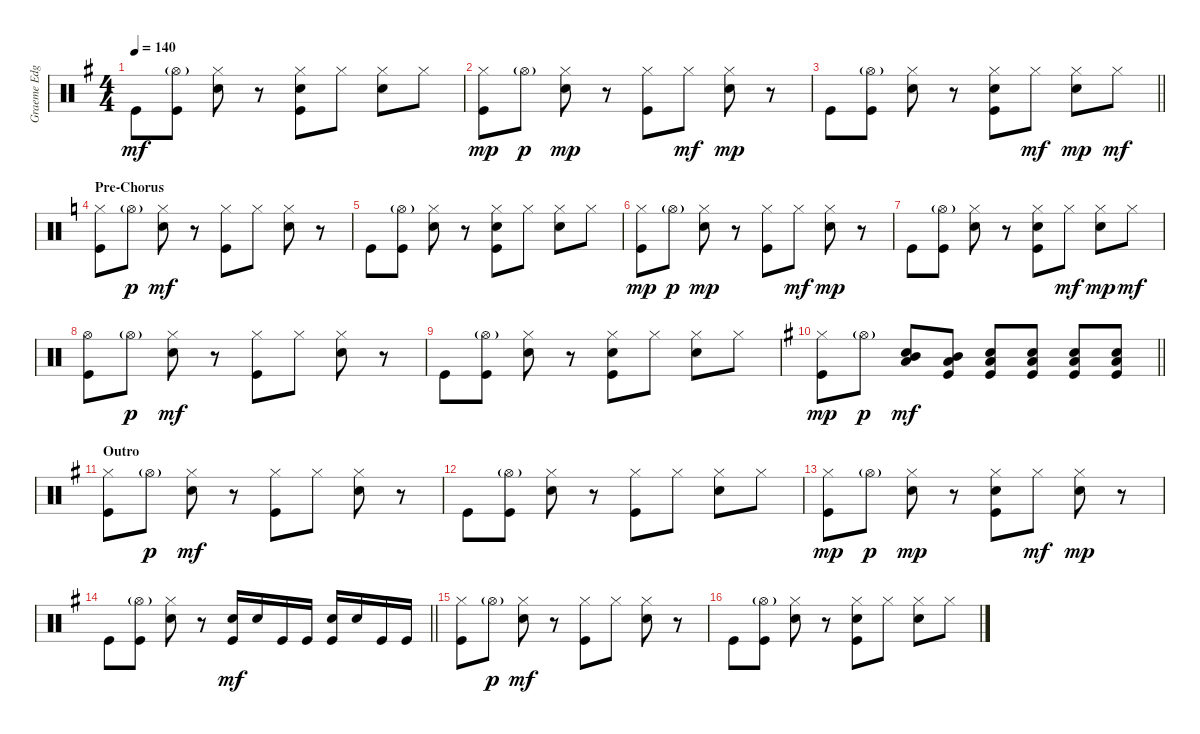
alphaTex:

\track ("Graeme Edge" "Graeme Edg") {instrument percussion}
\staff {score}
\articulation defaults
\ts (4 4)
\tempo 140
\clef neutral
\ks g "Kick (hit)".8{dy mf}
("Hi-Hat (open)"{g} "Kick (hit)").8 ("Hi-Hat (closed)" "Snare (hit) 2").8 r.8 ("Hi-Hat (closed)" "Hand Clap (hit)" "Kick (hit)").8 "Hi-Hat (closed)".8 ("Hi-Hat (closed)" "Snare (hit) 2").8 "Hi-Hat (closed)".8 |
("Hi-Hat (closed)" "Kick (hit)").8{dy mp} "Hi-Hat (open)"{g}.8{dy p} ("Hi-Hat (closed)" "Snare (hit) 2").8{dy mp} r.8 ("Hi-Hat (closed)" "Kick (hit)").8 "Hi-Hat (closed)".8{dy mf} ("Hi-Hat (closed)" "Snare (hit) 2").8{dy mp} r.8 |
\barLineRight lightlight "Kick (hit)".8
("Hi-Hat (open)"{g} "Kick (hit)").8 ("Hi-Hat (closed)" "Snare (hit) 2").8 r.8 ("Hi-Hat (closed)" "Hand Clap (hit)" "Kick (hit)").8 "Hi-Hat (closed)".8{dy mf} ("Hi-Hat (closed)" "Snare (hit) 2").8{dy mp} "Hi-Hat (closed)".8{dy mf} |
\section ("" "Pre-Chorus")
\ks c
("Hi-Hat (closed)" "Kick (hit)").8 "Hi-Hat (open)"{g}.8{dy p} ("Hi-Hat (closed)" "Snare (hit) 2").8{dy mf} r.8 ("Hi-Hat (closed)" "Kick (hit)").8 "Hi-Hat (closed)".8 ("Hi-Hat (closed)" "Snare (hit) 2").8 r.8 |
"Kick (hit)".8 ("Hi-Hat (open)"{g} "Kick (hit)").8 ("Hi-Hat (closed)" "Snare (hit) 2").8 r.8 ("Hi-Hat (closed)" "Hand Clap (hit)" "Kick (hit)").8 "Hi-Hat (closed)".8 ("Hi-Hat (closed)" "Snare (hit) 2").8 "Hi-Hat (closed)".8 |
("Hi-Hat (closed)" "Kick (hit)").8{dy mp} "Hi-Hat (open)"{g}.8{dy p} ("Hi-Hat (closed)" "Snare (hit) 2").8{dy mp} r.8 ("Hi-Hat (closed)" "Kick (hit)").8 "Hi-Hat (closed)".8{dy mf} ("Hi-Hat (closed)" "Snare (hit) 2").8{dy mp} r.8 |
"Kick (hit)".8 ("Hi-Hat (open)"{g} "Kick (hit)").8 ("Hi-Hat (closed)" "Snare (hit) 2").8 r.8 ("Hi-Hat (closed)" "Hand Clap (hit)" "Kick (hit)").8 "Hi-Hat (closed)".8{dy mf} ("Hi-Hat (closed)" "Snare (hit) 2").8{dy mp} "Hi-Hat (closed)".8{dy mf} |
("Hi-Hat (open)" "Kick (hit)").8 "Hi-Hat (open)"{g}.8{dy p} ("Hi-Hat (closed)" "Snare (hit) 2").8{dy mf} r.8 ("Hi-Hat (closed)" "Kick (hit)").8 "Hi-Hat (closed)".8 ("Hi-Hat (closed)" "Snare (hit) 2").8 r.8 |
"Kick (hit)".8 ("Hi-Hat (open)"{g} "Kick (hit)").8 ("Hi-Hat (closed)" "Snare (hit) 2").8 r.8 ("Hi-Hat (closed)" "Hand Clap (hit)" "Kick (hit)").8 "Hi-Hat (closed)".8 ("Hi-Hat (closed)" "Snare (hit) 2").8 "Hi-Hat (closed)".8 |
\barLineRight lightlight
\ks g
("Hi-Hat (closed)" "Kick (hit)").8{dy mp} "Hi-Hat (open)"{g}.8{dy p} ("Mid Tom (hit)" "Low Tom (hit)" "Snare (hit) 2").8{dy mf} ("Mid Tom (hit)" "Low Tom (hit)" "Kick (hit)").8 ("Low Tom (hit)" "Snare (hit) 2" "Kick (hit)").8 ("Low Tom (hit)" "Snare (hit) 2" "Kick (hit)").8 ("Low Tom (hit)" "Snare (hit) 2" "Kick (hit)").8 ("Low Tom (hit)" "Snare (hit) 2" "Kick (hit)").8 |
\section ("" "Outro")
("Hi-Hat (closed)" "Kick (hit)").8 "Hi-Hat (open)"{g}.8{dy p} ("Hi-Hat (closed)" "Snare (hit) 2").8{dy mf} r.8 ("Hi-Hat (closed)" "Kick (hit)").8 "Hi-Hat (closed)".8 ("Hi-Hat (closed)" "Snare (hit) 2").8 r.8 |
"Kick (hit)".8 ("Hi-Hat (open)"{g} "Kick (hit)").8 ("Hi-Hat (closed)" "Snare (hit) 2").8 r.8 ("Hi-Hat (closed)" "Kick (hit)").8 "Hi-Hat (closed)".8 ("Hi-Hat (closed)" "Snare (hit) 2").8 "Hi-Hat (closed)".8 |
("Hi-Hat (closed)" "Kick (hit)").8{dy mp} "Hi-Hat (open)"{g}.8{dy p} ("Hi-Hat (closed)" "Snare (hit) 2").8{dy mp} r.8 ("Hi-Hat (closed)" "Hand Clap (hit)" "Kick (hit)").8 "Hi-Hat (closed)".8{dy mf} ("Hi-Hat (closed)" "Snare (hit) 2").8{dy mp} r.8 |
\barLineRight lightlight "Kick (hit)".8
("Hi-Hat (open)"{g} "Kick (hit)").8 ("Hi-Hat (closed)" "Snare (hit) 2").8 r.8 ("Snare (hit) 2" "Kick (hit)").16{dy mf} "Snare (hit) 2".16 "Kick (hit)".16 "Kick (hit)".16 ("Snare (hit) 2" "Kick (hit)").16 "Snare (hit) 2".16 "Kick (hit)".16 "Kick (hit)".16 |
\section ("" "")
("Hi-Hat (closed)" "Kick (hit)").8 "Hi-Hat (open)"{g}.8{dy p} ("Hi-Hat (closed)" "Snare (hit) 2").8{dy mf} r.8 ("Hi-Hat (closed)" "Kick (hit)").8 "Hi-Hat (closed)".8 ("Hi-Hat (closed)" "Snare (hit) 2").8 r.8 |
"Kick (hit)".8 ("Hi-Hat (open)"{g} "Kick (hit)").8 ("Hi-Hat (closed)" "Snare (hit) 2").8 r.8 ("Hi-Hat (closed)" "Hand Clap (hit)" "Kick (hit)").8 "Hi-Hat (closed)".8 ("Hi-Hat (closed)" "Snare (hit) 2").8 "Hi-Hat (closed)".8
